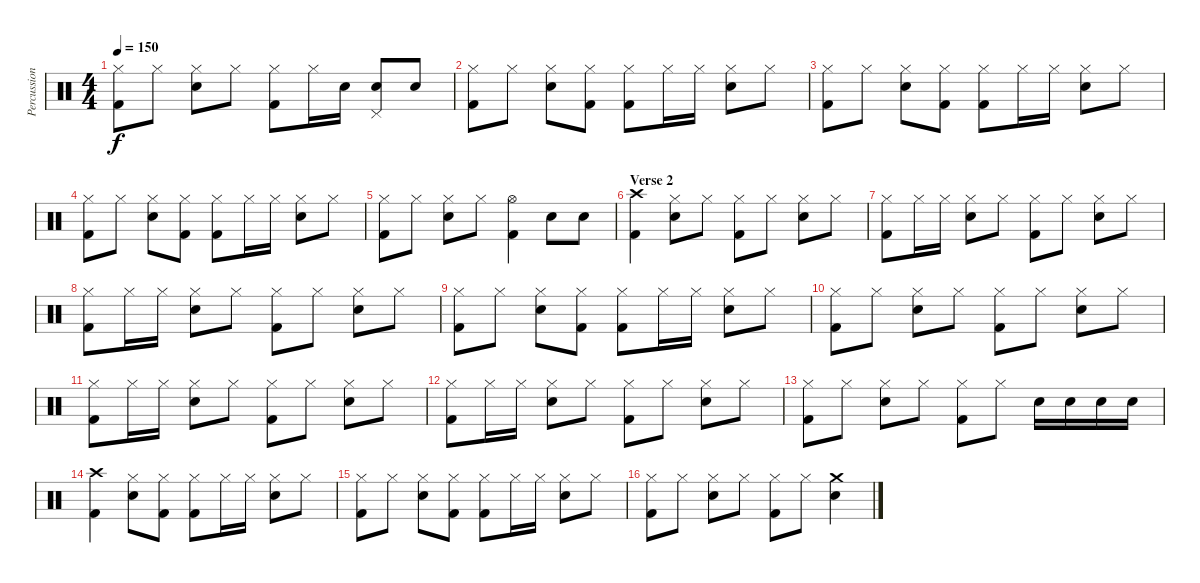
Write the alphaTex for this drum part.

\track ("Percussion" "Percussion") {instrument percussion}
\staff {score}
\articulation defaults
\ts (4 4)
\tempo 150
\clef neutral
\ks c
("Hi-Hat (closed)" "Kick (hit) 2").8{dy f} "Hi-Hat (closed)".8 ("Hi-Hat (closed)" "Snare (hit) 2").8 "Hi-Hat (closed)".8 ("Hi-Hat (closed)" "Kick (hit) 2").8 "Hi-Hat (closed)".16 "Snare (hit) 2".16 ("Pedal Hi-Hat (hit)" "Snare (hit) 2").8 "Snare (hit) 2".8 |
("Hi-Hat (closed)" "Kick (hit) 2").8 "Hi-Hat (closed)".8 ("Hi-Hat (closed)" "Snare (hit) 2").8 ("Hi-Hat (closed)" "Kick (hit) 2").8 ("Hi-Hat (closed)" "Kick (hit) 2").8 "Hi-Hat (closed)".16 "Hi-Hat (closed)".16 ("Hi-Hat (closed)" "Snare (hit) 2").8 "Hi-Hat (closed)".8 |
("Hi-Hat (closed)" "Kick (hit) 2").8 "Hi-Hat (closed)".8 ("Hi-Hat (closed)" "Snare (hit) 2").8 ("Hi-Hat (closed)" "Kick (hit) 2").8 ("Hi-Hat (closed)" "Kick (hit) 2").8 "Hi-Hat (closed)".16 "Hi-Hat (closed)".16 ("Hi-Hat (closed)" "Snare (hit) 2").8 "Hi-Hat (closed)".8 |
("Hi-Hat (closed)" "Kick (hit) 2").8 "Hi-Hat (closed)".8 ("Hi-Hat (closed)" "Snare (hit) 2").8 ("Hi-Hat (closed)" "Kick (hit) 2").8 ("Hi-Hat (closed)" "Kick (hit) 2").8 "Hi-Hat (closed)".16 "Hi-Hat (closed)".16 ("Hi-Hat (closed)" "Snare (hit) 2").8 "Hi-Hat (closed)".8 |
("Hi-Hat (closed)" "Kick (hit) 2").8 "Hi-Hat (closed)".8 ("Hi-Hat (closed)" "Snare (hit) 2").8 "Hi-Hat (closed)".8 ("Hi-Hat (open)" "Kick (hit) 2").4 "Snare (hit) 2".8 "Snare (hit) 2".8 |
\section ("" "Verse 2")
("Crash high (hit)" "Kick (hit) 2").4 ("Hi-Hat (closed)" "Snare (hit) 2").8 "Hi-Hat (closed)".8 ("Hi-Hat (closed)" "Kick (hit) 2").8 "Hi-Hat (closed)".8 ("Hi-Hat (closed)" "Snare (hit) 2").8 "Hi-Hat (closed)".8 |
("Hi-Hat (closed)" "Kick (hit) 2").8 "Hi-Hat (closed)".16 "Hi-Hat (closed)".16 ("Hi-Hat (closed)" "Snare (hit) 2").8 "Hi-Hat (closed)".8 ("Hi-Hat (closed)" "Kick (hit) 2").8 "Hi-Hat (closed)".8 ("Hi-Hat (closed)" "Snare (hit) 2").8 "Hi-Hat (closed)".8 |
("Hi-Hat (closed)" "Kick (hit) 2").8 "Hi-Hat (closed)".16 "Hi-Hat (closed)".16 ("Hi-Hat (closed)" "Snare (hit) 2").8 "Hi-Hat (closed)".8 ("Hi-Hat (closed)" "Kick (hit) 2").8 "Hi-Hat (closed)".8 ("Hi-Hat (closed)" "Snare (hit) 2").8 "Hi-Hat (closed)".8 |
("Hi-Hat (closed)" "Kick (hit) 2").8 "Hi-Hat (closed)".8 ("Hi-Hat (closed)" "Snare (hit) 2").8 ("Hi-Hat (closed)" "Kick (hit) 2").8 ("Hi-Hat (closed)" "Kick (hit) 2").8 "Hi-Hat (closed)".16 "Hi-Hat (closed)".16 ("Hi-Hat (closed)" "Snare (hit) 2").8 "Hi-Hat (closed)".8 |
("Hi-Hat (closed)" "Kick (hit) 2").8 "Hi-Hat (closed)".8 ("Hi-Hat (closed)" "Snare (hit) 2").8 "Hi-Hat (closed)".8 ("Hi-Hat (closed)" "Kick (hit) 2").8 "Hi-Hat (closed)".8 ("Hi-Hat (closed)" "Snare (hit) 2").8 "Hi-Hat (closed)".8 |
("Hi-Hat (closed)" "Kick (hit) 2").8 "Hi-Hat (closed)".16 "Hi-Hat (closed)".16 ("Hi-Hat (closed)" "Snare (hit) 2").8 "Hi-Hat (closed)".8 ("Hi-Hat (closed)" "Kick (hit) 2").8 "Hi-Hat (closed)".8 ("Hi-Hat (closed)" "Snare (hit) 2").8 "Hi-Hat (closed)".8 |
("Hi-Hat (closed)" "Kick (hit) 2").8 "Hi-Hat (closed)".16 "Hi-Hat (closed)".16 ("Hi-Hat (closed)" "Snare (hit) 2").8 "Hi-Hat (closed)".8 ("Hi-Hat (closed)" "Kick (hit) 2").8 "Hi-Hat (closed)".8 ("Hi-Hat (closed)" "Snare (hit) 2").8 "Hi-Hat (closed)".8 |
("Hi-Hat (closed)" "Kick (hit) 2").8 "Hi-Hat (closed)".8 ("Hi-Hat (closed)" "Snare (hit) 2").8 "Hi-Hat (closed)".8 ("Hi-Hat (closed)" "Kick (hit) 2").8 "Hi-Hat (closed)".8 "Snare (hit) 2".16 "Snare (hit) 2".16 "Snare (hit) 2".16 "Snare (hit) 2".16 |
("Crash high (hit)" "Kick (hit) 2").4 ("Hi-Hat (closed)" "Snare (hit) 2").8 ("Hi-Hat (closed)" "Kick (hit) 2").8 ("Hi-Hat (closed)" "Kick (hit) 2").8 "Hi-Hat (closed)".16 "Hi-Hat (closed)".16 ("Hi-Hat (closed)" "Snare (hit) 2").8 "Hi-Hat (closed)".8 |
("Hi-Hat (closed)" "Kick (hit) 2").8 "Hi-Hat (closed)".8 ("Hi-Hat (closed)" "Snare (hit) 2").8 ("Hi-Hat (closed)" "Kick (hit) 2").8 ("Hi-Hat (closed)" "Kick (hit) 2").8 "Hi-Hat (closed)".16 "Hi-Hat (closed)".16 ("Hi-Hat (closed)" "Snare (hit) 2").8 "Hi-Hat (closed)".8 |
("Hi-Hat (closed)" "Kick (hit) 2").8 "Hi-Hat (closed)".8 ("Hi-Hat (closed)" "Snare (hit) 2").8 "Hi-Hat (closed)".8 ("Hi-Hat (closed)" "Kick (hit) 2").8 "Hi-Hat (closed)".8 ("Crash medium (hit)" "Snare (hit) 2").4
